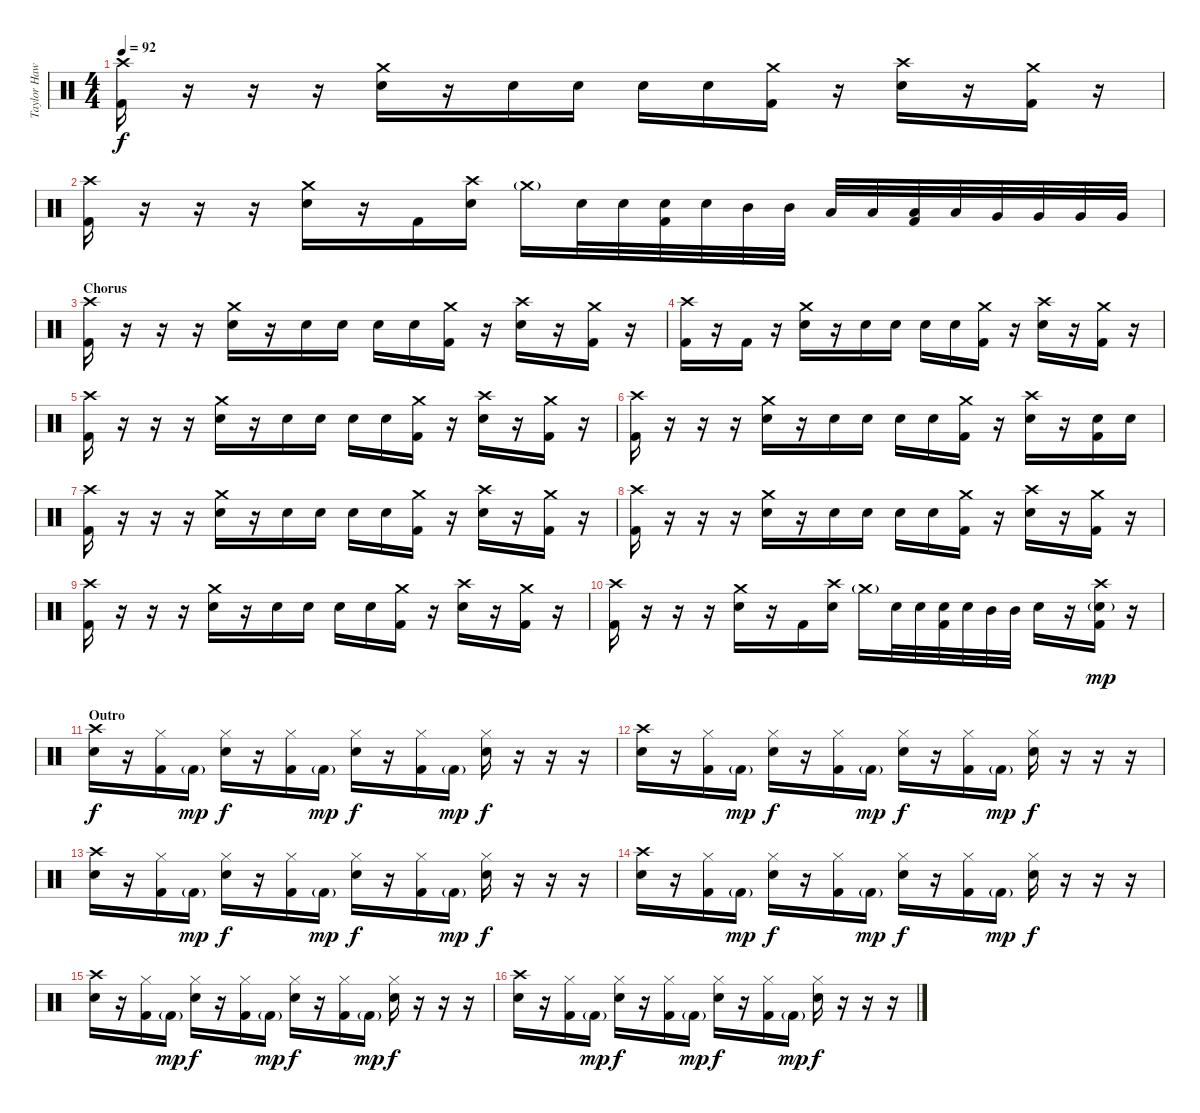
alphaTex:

\track ("Taylor Hawkins (Drums)" "Taylor Haw") {instrument percussion}
\staff {score}
\articulation defaults
\ts (4 4)
\tempo 92
\clef neutral
\ks c
("Crash high (hit)" "Kick (hit) 2").16{dy f} r.16 r.16 r.16 ("Crash medium (hit)" "Electric Snare (hit)").16 r.16 "Electric Snare (hit)".16 "Electric Snare (hit)".16 "Electric Snare (hit)".16 "Electric Snare (hit)".16 ("Crash medium (hit)" "Kick (hit) 2").16 r.16 ("Crash high (hit)" "Electric Snare (hit)").16 r.16 ("Crash medium (hit)" "Kick (hit) 2").16 r.16 |
("Crash high (hit)" "Kick (hit) 2").16 r.16 r.16 r.16 ("Crash medium (hit)" "Electric Snare (hit)").16 r.16 "Kick (hit) 2".16 ("Crash high (hit)" "Electric Snare (hit)").16 "Crash medium (hit)"{g}.16 "Electric Snare (hit)".32 "Electric Snare (hit)".32 ("Electric Snare (hit)" "Kick (hit) 2").32 "Electric Snare (hit)".32 "Mid Tom (hit)".32 "Mid Tom (hit)".32 "Low Tom (hit)".32 "Low Tom (hit)".32 ("Low Tom (hit)" "Kick (hit) 2").32 "Low Tom (hit)".32 "Very Low Tom (hit)".32 "Very Low Tom (hit)".32 "Very Low Tom (hit)".32 "Very Low Tom (hit)".32 |
\section ("" "Chorus")
("Crash high (hit)" "Kick (hit) 2").16 r.16 r.16 r.16 ("Crash medium (hit)" "Electric Snare (hit)").16 r.16 "Electric Snare (hit)".16 "Electric Snare (hit)".16 "Electric Snare (hit)".16 "Electric Snare (hit)".16 ("Crash medium (hit)" "Kick (hit) 2").16 r.16 ("Crash high (hit)" "Electric Snare (hit)").16 r.16 ("Crash medium (hit)" "Kick (hit) 2").16 r.16 |
("Crash high (hit)" "Kick (hit) 2").16 r.16 "Kick (hit) 2".16 r.16 ("Crash medium (hit)" "Electric Snare (hit)").16 r.16 "Electric Snare (hit)".16 "Electric Snare (hit)".16 "Electric Snare (hit)".16 "Electric Snare (hit)".16 ("Crash medium (hit)" "Kick (hit) 2").16 r.16 ("Crash high (hit)" "Electric Snare (hit)").16 r.16 ("Crash medium (hit)" "Kick (hit) 2").16 r.16 |
("Crash high (hit)" "Kick (hit) 2").16 r.16 r.16 r.16 ("Crash medium (hit)" "Electric Snare (hit)").16 r.16 "Electric Snare (hit)".16 "Electric Snare (hit)".16 "Electric Snare (hit)".16 "Electric Snare (hit)".16 ("Crash medium (hit)" "Kick (hit) 2").16 r.16 ("Crash high (hit)" "Electric Snare (hit)").16 r.16 ("Crash medium (hit)" "Kick (hit) 2").16 r.16 |
("Crash high (hit)" "Kick (hit) 2").16 r.16 r.16 r.16 ("Crash medium (hit)" "Electric Snare (hit)").16 r.16 "Electric Snare (hit)".16 "Electric Snare (hit)".16 "Electric Snare (hit)".16 "Electric Snare (hit)".16 ("Crash medium (hit)" "Kick (hit) 2").16 r.16 ("Crash high (hit)" "Electric Snare (hit)").16 r.16 ("Electric Snare (hit)" "Kick (hit) 2").16 "Electric Snare (hit)".16 |
("Crash high (hit)" "Kick (hit) 2").16 r.16 r.16 r.16 ("Crash medium (hit)" "Electric Snare (hit)").16 r.16 "Electric Snare (hit)".16 "Electric Snare (hit)".16 "Electric Snare (hit)".16 "Electric Snare (hit)".16 ("Crash medium (hit)" "Kick (hit) 2").16 r.16 ("Crash high (hit)" "Electric Snare (hit)").16 r.16 ("Crash medium (hit)" "Kick (hit) 2").16 r.16 |
("Crash high (hit)" "Kick (hit) 2").16 r.16 r.16 r.16 ("Crash medium (hit)" "Electric Snare (hit)").16 r.16 "Electric Snare (hit)".16 "Electric Snare (hit)".16 "Electric Snare (hit)".16 "Electric Snare (hit)".16 ("Crash medium (hit)" "Kick (hit) 2").16 r.16 ("Crash high (hit)" "Electric Snare (hit)").16 r.16 ("Crash medium (hit)" "Kick (hit) 2").16 r.16 |
("Crash high (hit)" "Kick (hit) 2").16 r.16 r.16 r.16 ("Crash medium (hit)" "Electric Snare (hit)").16 r.16 "Electric Snare (hit)".16 "Electric Snare (hit)".16 "Electric Snare (hit)".16 "Electric Snare (hit)".16 ("Crash medium (hit)" "Kick (hit) 2").16 r.16 ("Crash high (hit)" "Electric Snare (hit)").16 r.16 ("Crash medium (hit)" "Kick (hit) 2").16 r.16 |
("Crash high (hit)" "Kick (hit) 2").16 r.16 r.16 r.16 ("Crash medium (hit)" "Electric Snare (hit)").16 r.16 "Kick (hit) 2".16 ("Crash high (hit)" "Electric Snare (hit)").16 "Crash medium (hit)"{g}.16 "Electric Snare (hit)".32 "Electric Snare (hit)".32 ("Electric Snare (hit)" "Kick (hit) 2").32 "Electric Snare (hit)".32 "Mid Tom (hit)".32 "Mid Tom (hit)".32 "Electric Snare (hit)".16 r.16 ("Crash high (hit)" "Electric Snare (hit)"{g} "Kick (hit) 2").16{dy mp} r.16 |
\section ("" "Outro")
("Crash high (hit)" "Electric Snare (hit)").16{dy f} r.16 ("Hi-Hat (closed)" "Kick (hit) 2").16 "Kick (hit) 2"{g}.16{dy mp} ("Hi-Hat (closed)" "Electric Snare (hit)").16{dy f} r.16 ("Hi-Hat (closed)" "Kick (hit) 2").16 "Kick (hit) 2"{g}.16{dy mp} ("Hi-Hat (closed)" "Electric Snare (hit)").16{dy f} r.16 ("Hi-Hat (closed)" "Kick (hit) 2").16 "Kick (hit) 2"{g}.16{dy mp} ("Hi-Hat (closed)" "Electric Snare (hit)").16{dy f} r.16 r.16 r.16 |
("Crash high (hit)" "Electric Snare (hit)").16 r.16 ("Hi-Hat (closed)" "Kick (hit) 2").16 "Kick (hit) 2"{g}.16{dy mp} ("Hi-Hat (closed)" "Electric Snare (hit)").16{dy f} r.16 ("Hi-Hat (closed)" "Kick (hit) 2").16 "Kick (hit) 2"{g}.16{dy mp} ("Hi-Hat (closed)" "Electric Snare (hit)").16{dy f} r.16 ("Hi-Hat (closed)" "Kick (hit) 2").16 "Kick (hit) 2"{g}.16{dy mp} ("Hi-Hat (closed)" "Electric Snare (hit)").16{dy f} r.16 r.16 r.16 |
("Crash high (hit)" "Electric Snare (hit)").16 r.16 ("Hi-Hat (closed)" "Kick (hit) 2").16 "Kick (hit) 2"{g}.16{dy mp} ("Hi-Hat (closed)" "Electric Snare (hit)").16{dy f} r.16 ("Hi-Hat (closed)" "Kick (hit) 2").16 "Kick (hit) 2"{g}.16{dy mp} ("Hi-Hat (closed)" "Electric Snare (hit)").16{dy f} r.16 ("Hi-Hat (closed)" "Kick (hit) 2").16 "Kick (hit) 2"{g}.16{dy mp} ("Hi-Hat (closed)" "Electric Snare (hit)").16{dy f} r.16 r.16 r.16 |
("Crash high (hit)" "Electric Snare (hit)").16 r.16 ("Hi-Hat (closed)" "Kick (hit) 2").16 "Kick (hit) 2"{g}.16{dy mp} ("Hi-Hat (closed)" "Electric Snare (hit)").16{dy f} r.16 ("Hi-Hat (closed)" "Kick (hit) 2").16 "Kick (hit) 2"{g}.16{dy mp} ("Hi-Hat (closed)" "Electric Snare (hit)").16{dy f} r.16 ("Hi-Hat (closed)" "Kick (hit) 2").16 "Kick (hit) 2"{g}.16{dy mp} ("Hi-Hat (closed)" "Electric Snare (hit)").16{dy f} r.16 r.16 r.16 |
("Crash high (hit)" "Electric Snare (hit)").16 r.16 ("Hi-Hat (closed)" "Kick (hit) 2").16 "Kick (hit) 2"{g}.16{dy mp} ("Hi-Hat (closed)" "Electric Snare (hit)").16{dy f} r.16 ("Hi-Hat (closed)" "Kick (hit) 2").16 "Kick (hit) 2"{g}.16{dy mp} ("Hi-Hat (closed)" "Electric Snare (hit)").16{dy f} r.16 ("Hi-Hat (closed)" "Kick (hit) 2").16 "Kick (hit) 2"{g}.16{dy mp} ("Hi-Hat (closed)" "Electric Snare (hit)").16{dy f} r.16 r.16 r.16 |
("Crash high (hit)" "Electric Snare (hit)").16 r.16 ("Hi-Hat (closed)" "Kick (hit) 2").16 "Kick (hit) 2"{g}.16{dy mp} ("Hi-Hat (closed)" "Electric Snare (hit)").16{dy f} r.16 ("Hi-Hat (closed)" "Kick (hit) 2").16 "Kick (hit) 2"{g}.16{dy mp} ("Hi-Hat (closed)" "Electric Snare (hit)").16{dy f} r.16 ("Hi-Hat (closed)" "Kick (hit) 2").16 "Kick (hit) 2"{g}.16{dy mp} ("Hi-Hat (closed)" "Electric Snare (hit)").16{dy f} r.16 r.16 r.16
